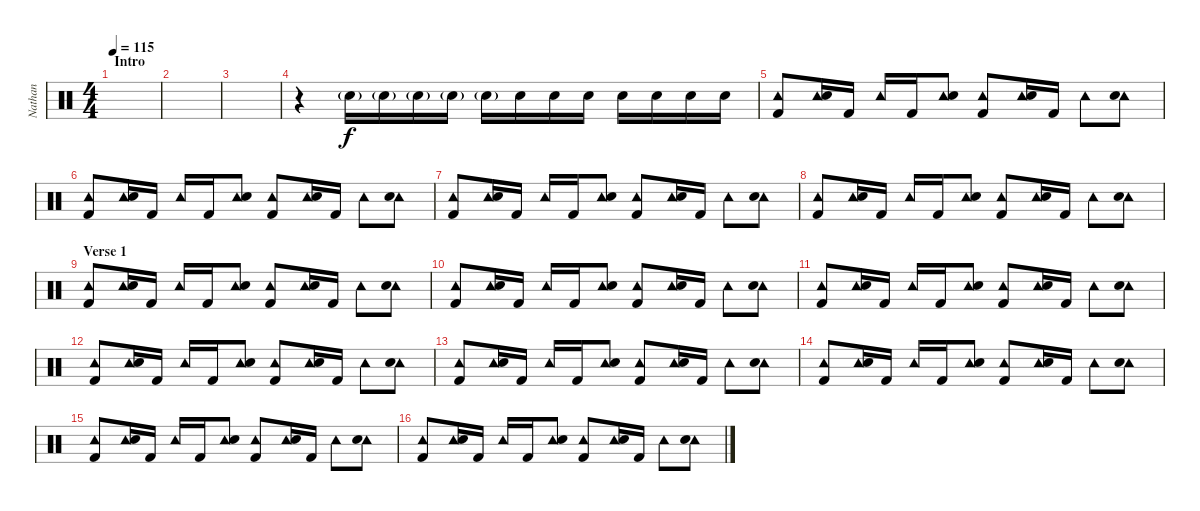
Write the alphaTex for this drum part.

\track ("Nathan" "Nathan") {instrument percussion}
\staff {score}
\articulation defaults
\ts (4 4)
\section ("" "Intro")
\tempo 115
\clef neutral
\ks c
|
|
|
r.4 "Electric Snare (hit)"{g}.16 "Electric Snare (hit)"{g}.16 "Electric Snare (hit)"{g}.16 "Electric Snare (hit)"{g}.16 "Electric Snare (hit)"{g}.16 "Electric Snare (hit)".16{dy f} "Electric Snare (hit)".16 "Electric Snare (hit)".16 "Electric Snare (hit)".16 "Electric Snare (hit)".16 "Electric Snare (hit)".16 "Electric Snare (hit)".16 |
("Tambourine (hit)" "Kick (hit) 2").8 ("Tambourine (hit)" "Electric Snare (hit)").16 "Kick (hit) 2".16 "Tambourine (hit)".16 "Kick (hit) 2".16 ("Tambourine (hit)" "Electric Snare (hit)").8 ("Tambourine (hit)" "Kick (hit) 2").8 ("Tambourine (hit)" "Electric Snare (hit)").16 "Kick (hit) 2".16 "Tambourine (hit)".8 ("Tambourine (hit)" "Electric Snare (hit)").8 |
("Tambourine (hit)" "Kick (hit) 2").8 ("Tambourine (hit)" "Electric Snare (hit)").16 "Kick (hit) 2".16 "Tambourine (hit)".16 "Kick (hit) 2".16 ("Tambourine (hit)" "Electric Snare (hit)").8 ("Tambourine (hit)" "Kick (hit) 2").8 ("Tambourine (hit)" "Electric Snare (hit)").16 "Kick (hit) 2".16 "Tambourine (hit)".8 ("Tambourine (hit)" "Electric Snare (hit)").8 |
("Tambourine (hit)" "Kick (hit) 2").8 ("Tambourine (hit)" "Electric Snare (hit)").16 "Kick (hit) 2".16 "Tambourine (hit)".16 "Kick (hit) 2".16 ("Tambourine (hit)" "Electric Snare (hit)").8 ("Tambourine (hit)" "Kick (hit) 2").8 ("Tambourine (hit)" "Electric Snare (hit)").16 "Kick (hit) 2".16 "Tambourine (hit)".8 ("Tambourine (hit)" "Electric Snare (hit)").8 |
("Tambourine (hit)" "Kick (hit) 2").8 ("Tambourine (hit)" "Electric Snare (hit)").16 "Kick (hit) 2".16 "Tambourine (hit)".16 "Kick (hit) 2".16 ("Tambourine (hit)" "Electric Snare (hit)").8 ("Tambourine (hit)" "Kick (hit) 2").8 ("Tambourine (hit)" "Electric Snare (hit)").16 "Kick (hit) 2".16 "Tambourine (hit)".8 ("Tambourine (hit)" "Electric Snare (hit)").8 |
\section ("" "Verse 1")
("Tambourine (hit)" "Kick (hit) 2").8 ("Tambourine (hit)" "Electric Snare (hit)").16 "Kick (hit) 2".16 "Tambourine (hit)".16 "Kick (hit) 2".16 ("Tambourine (hit)" "Electric Snare (hit)").8 ("Tambourine (hit)" "Kick (hit) 2").8 ("Tambourine (hit)" "Electric Snare (hit)").16 "Kick (hit) 2".16 "Tambourine (hit)".8 ("Tambourine (hit)" "Electric Snare (hit)").8 |
("Tambourine (hit)" "Kick (hit) 2").8 ("Tambourine (hit)" "Electric Snare (hit)").16 "Kick (hit) 2".16 "Tambourine (hit)".16 "Kick (hit) 2".16 ("Tambourine (hit)" "Electric Snare (hit)").8 ("Tambourine (hit)" "Kick (hit) 2").8 ("Tambourine (hit)" "Electric Snare (hit)").16 "Kick (hit) 2".16 "Tambourine (hit)".8 ("Tambourine (hit)" "Electric Snare (hit)").8 |
("Tambourine (hit)" "Kick (hit) 2").8 ("Tambourine (hit)" "Electric Snare (hit)").16 "Kick (hit) 2".16 "Tambourine (hit)".16 "Kick (hit) 2".16 ("Tambourine (hit)" "Electric Snare (hit)").8 ("Tambourine (hit)" "Kick (hit) 2").8 ("Tambourine (hit)" "Electric Snare (hit)").16 "Kick (hit) 2".16 "Tambourine (hit)".8 ("Tambourine (hit)" "Electric Snare (hit)").8 |
("Tambourine (hit)" "Kick (hit) 2").8 ("Tambourine (hit)" "Electric Snare (hit)").16 "Kick (hit) 2".16 "Tambourine (hit)".16 "Kick (hit) 2".16 ("Tambourine (hit)" "Electric Snare (hit)").8 ("Tambourine (hit)" "Kick (hit) 2").8 ("Tambourine (hit)" "Electric Snare (hit)").16 "Kick (hit) 2".16 "Tambourine (hit)".8 ("Tambourine (hit)" "Electric Snare (hit)").8 |
("Tambourine (hit)" "Kick (hit) 2").8 ("Tambourine (hit)" "Electric Snare (hit)").16 "Kick (hit) 2".16 "Tambourine (hit)".16 "Kick (hit) 2".16 ("Tambourine (hit)" "Electric Snare (hit)").8 ("Tambourine (hit)" "Kick (hit) 2").8 ("Tambourine (hit)" "Electric Snare (hit)").16 "Kick (hit) 2".16 "Tambourine (hit)".8 ("Tambourine (hit)" "Electric Snare (hit)").8 |
("Tambourine (hit)" "Kick (hit) 2").8 ("Tambourine (hit)" "Electric Snare (hit)").16 "Kick (hit) 2".16 "Tambourine (hit)".16 "Kick (hit) 2".16 ("Tambourine (hit)" "Electric Snare (hit)").8 ("Tambourine (hit)" "Kick (hit) 2").8 ("Tambourine (hit)" "Electric Snare (hit)").16 "Kick (hit) 2".16 "Tambourine (hit)".8 ("Tambourine (hit)" "Electric Snare (hit)").8 |
("Tambourine (hit)" "Kick (hit) 2").8 ("Tambourine (hit)" "Electric Snare (hit)").16 "Kick (hit) 2".16 "Tambourine (hit)".16 "Kick (hit) 2".16 ("Tambourine (hit)" "Electric Snare (hit)").8 ("Tambourine (hit)" "Kick (hit) 2").8 ("Tambourine (hit)" "Electric Snare (hit)").16 "Kick (hit) 2".16 "Tambourine (hit)".8 ("Tambourine (hit)" "Electric Snare (hit)").8 |
("Tambourine (hit)" "Kick (hit) 2").8 ("Tambourine (hit)" "Electric Snare (hit)").16 "Kick (hit) 2".16 "Tambourine (hit)".16 "Kick (hit) 2".16 ("Tambourine (hit)" "Electric Snare (hit)").8 ("Tambourine (hit)" "Kick (hit) 2").8 ("Tambourine (hit)" "Electric Snare (hit)").16 "Kick (hit) 2".16 "Tambourine (hit)".8 ("Tambourine (hit)" "Electric Snare (hit)").8
